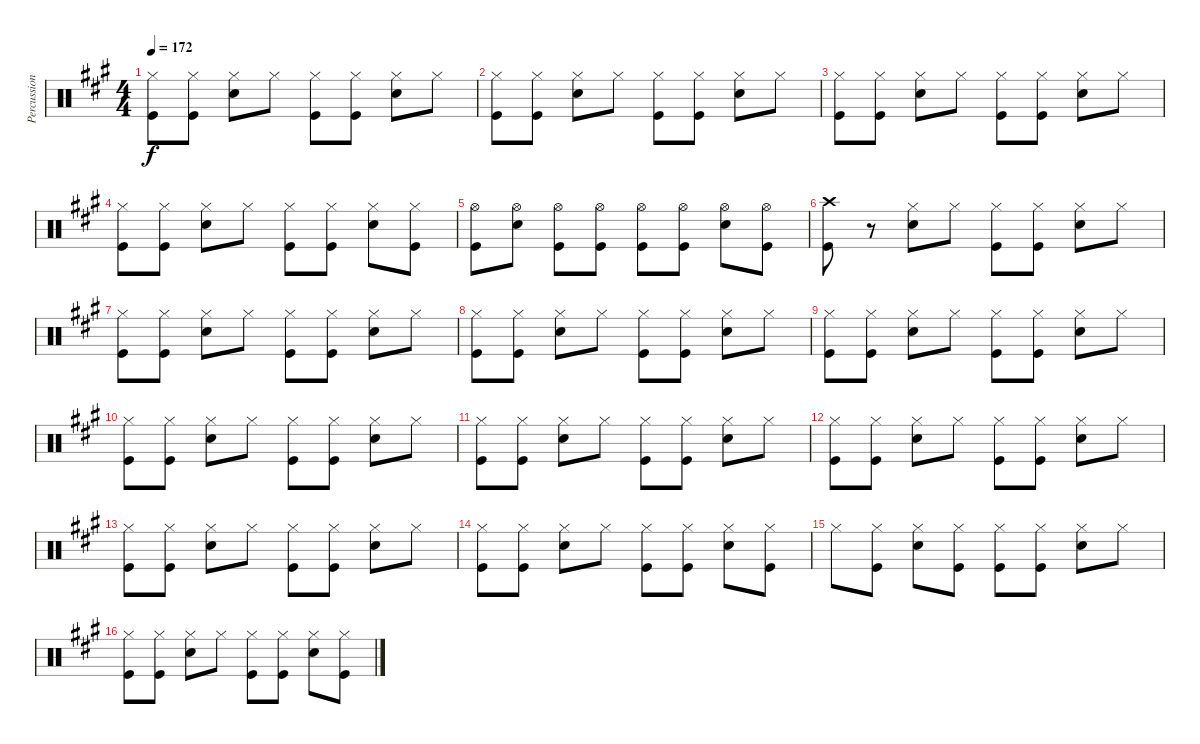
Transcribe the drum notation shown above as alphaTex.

\track ("Percussion" "Percussion") {instrument percussion}
\staff {score}
\articulation defaults
\ts (4 4)
\tempo 172
\clef neutral
\ks a
("Hi-Hat (closed)" "Kick (hit)").8{dy f} ("Hi-Hat (closed)" "Kick (hit)").8 ("Hi-Hat (closed)" "Snare (hit) 2").8 "Hi-Hat (closed)".8 ("Hi-Hat (closed)" "Kick (hit)").8 ("Hi-Hat (closed)" "Kick (hit)").8 ("Hi-Hat (closed)" "Snare (hit) 2").8 "Hi-Hat (closed)".8 |
("Hi-Hat (closed)" "Kick (hit)").8 ("Hi-Hat (closed)" "Kick (hit)").8 ("Hi-Hat (closed)" "Snare (hit) 2").8 "Hi-Hat (closed)".8 ("Hi-Hat (closed)" "Kick (hit)").8 ("Hi-Hat (closed)" "Kick (hit)").8 ("Hi-Hat (closed)" "Snare (hit) 2").8 "Hi-Hat (closed)".8 |
("Hi-Hat (closed)" "Kick (hit)").8 ("Hi-Hat (closed)" "Kick (hit)").8 ("Hi-Hat (closed)" "Snare (hit) 2").8 "Hi-Hat (closed)".8 ("Hi-Hat (closed)" "Kick (hit)").8 ("Hi-Hat (closed)" "Kick (hit)").8 ("Hi-Hat (closed)" "Snare (hit) 2").8 "Hi-Hat (closed)".8 |
("Hi-Hat (closed)" "Kick (hit)").8 ("Hi-Hat (closed)" "Kick (hit)").8 ("Hi-Hat (closed)" "Snare (hit) 2").8 "Hi-Hat (closed)".8 ("Hi-Hat (closed)" "Kick (hit)").8 ("Hi-Hat (closed)" "Kick (hit)").8 ("Hi-Hat (closed)" "Snare (hit) 2").8 ("Hi-Hat (closed)" "Kick (hit)").8 |
("Hi-Hat (open)" "Kick (hit)").8 ("Hi-Hat (open)" "Snare (hit) 2").8 ("Hi-Hat (open)" "Kick (hit)").8 ("Hi-Hat (open)" "Kick (hit)").8 ("Hi-Hat (open)" "Kick (hit)").8 ("Hi-Hat (open)" "Kick (hit)").8 ("Hi-Hat (open)" "Snare (hit) 2").8 ("Hi-Hat (open)" "Kick (hit)").8 |
("Crash high (hit)" "Kick (hit)").8 r.8 ("Hi-Hat (closed)" "Snare (hit) 2").8 "Hi-Hat (closed)".8 ("Hi-Hat (closed)" "Kick (hit)").8 ("Hi-Hat (closed)" "Kick (hit)").8 ("Hi-Hat (closed)" "Snare (hit) 2").8 "Hi-Hat (closed)".8 |
("Hi-Hat (closed)" "Kick (hit)").8 ("Hi-Hat (closed)" "Kick (hit)").8 ("Hi-Hat (closed)" "Snare (hit) 2").8 "Hi-Hat (closed)".8 ("Hi-Hat (closed)" "Kick (hit)").8 ("Hi-Hat (closed)" "Kick (hit)").8 ("Hi-Hat (closed)" "Snare (hit) 2").8 "Hi-Hat (closed)".8 |
("Hi-Hat (closed)" "Kick (hit)").8 ("Hi-Hat (closed)" "Kick (hit)").8 ("Hi-Hat (closed)" "Snare (hit) 2").8 "Hi-Hat (closed)".8 ("Hi-Hat (closed)" "Kick (hit)").8 ("Hi-Hat (closed)" "Kick (hit)").8 ("Hi-Hat (closed)" "Snare (hit) 2").8 "Hi-Hat (closed)".8 |
("Hi-Hat (closed)" "Kick (hit)").8 ("Hi-Hat (closed)" "Kick (hit)").8 ("Hi-Hat (closed)" "Snare (hit) 2").8 "Hi-Hat (closed)".8 ("Hi-Hat (closed)" "Kick (hit)").8 ("Hi-Hat (closed)" "Kick (hit)").8 ("Hi-Hat (closed)" "Snare (hit) 2").8 "Hi-Hat (closed)".8 |
("Hi-Hat (closed)" "Kick (hit)").8 ("Hi-Hat (closed)" "Kick (hit)").8 ("Hi-Hat (closed)" "Snare (hit) 2").8 "Hi-Hat (closed)".8 ("Hi-Hat (closed)" "Kick (hit)").8 ("Hi-Hat (closed)" "Kick (hit)").8 ("Hi-Hat (closed)" "Snare (hit) 2").8 "Hi-Hat (closed)".8 |
("Hi-Hat (closed)" "Kick (hit)").8 ("Hi-Hat (closed)" "Kick (hit)").8 ("Hi-Hat (closed)" "Snare (hit) 2").8 "Hi-Hat (closed)".8 ("Hi-Hat (closed)" "Kick (hit)").8 ("Hi-Hat (closed)" "Kick (hit)").8 ("Hi-Hat (closed)" "Snare (hit) 2").8 "Hi-Hat (closed)".8 |
("Hi-Hat (closed)" "Kick (hit)").8 ("Hi-Hat (closed)" "Kick (hit)").8 ("Hi-Hat (closed)" "Snare (hit) 2").8 "Hi-Hat (closed)".8 ("Hi-Hat (closed)" "Kick (hit)").8 ("Hi-Hat (closed)" "Kick (hit)").8 ("Hi-Hat (closed)" "Snare (hit) 2").8 "Hi-Hat (closed)".8 |
("Hi-Hat (closed)" "Kick (hit)").8 ("Hi-Hat (closed)" "Kick (hit)").8 ("Hi-Hat (closed)" "Snare (hit) 2").8 "Hi-Hat (closed)".8 ("Hi-Hat (closed)" "Kick (hit)").8 ("Hi-Hat (closed)" "Kick (hit)").8 ("Hi-Hat (closed)" "Snare (hit) 2").8 "Hi-Hat (closed)".8 |
("Hi-Hat (closed)" "Kick (hit)").8 ("Hi-Hat (closed)" "Kick (hit)").8 ("Hi-Hat (closed)" "Snare (hit) 2").8 "Hi-Hat (closed)".8 ("Hi-Hat (closed)" "Kick (hit)").8 ("Hi-Hat (closed)" "Kick (hit)").8 ("Hi-Hat (closed)" "Snare (hit) 2").8 ("Hi-Hat (closed)" "Kick (hit)").8 |
"Hi-Hat (closed)".8 ("Hi-Hat (closed)" "Kick (hit)").8 ("Hi-Hat (closed)" "Snare (hit) 2").8 ("Hi-Hat (closed)" "Kick (hit)").8 ("Hi-Hat (closed)" "Kick (hit)").8 ("Hi-Hat (closed)" "Kick (hit)").8 ("Hi-Hat (closed)" "Snare (hit) 2").8 "Hi-Hat (closed)".8 |
("Hi-Hat (closed)" "Kick (hit)").8 ("Hi-Hat (closed)" "Kick (hit)").8 ("Hi-Hat (closed)" "Snare (hit) 2").8 "Hi-Hat (closed)".8 ("Hi-Hat (closed)" "Kick (hit)").8 ("Hi-Hat (closed)" "Kick (hit)").8 ("Hi-Hat (closed)" "Snare (hit) 2").8 ("Hi-Hat (closed)" "Kick (hit)").8
